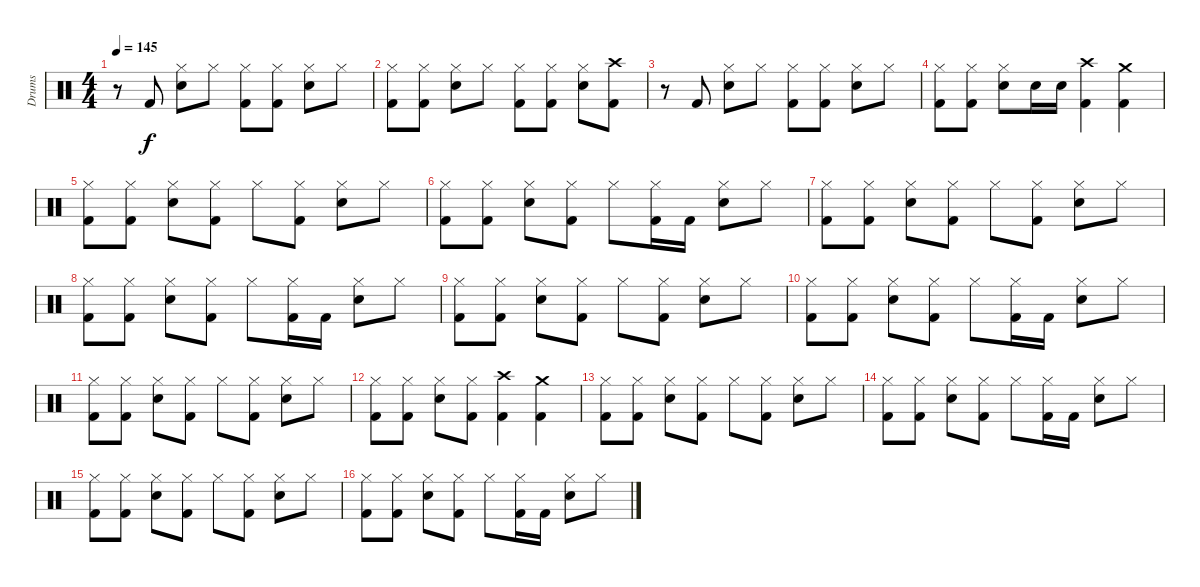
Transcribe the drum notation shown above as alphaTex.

\track ("Drums" "Drums") {instrument percussion}
\staff {score}
\articulation defaults
\ts (4 4)
\tempo 145
\clef neutral
\ks c
r.8{dy f} "Kick (hit) 2".8 ("Hi-Hat (closed)" "Snare (hit) 2").8 "Hi-Hat (closed)".8 ("Hi-Hat (closed)" "Kick (hit) 2").8 ("Hi-Hat (closed)" "Kick (hit) 2").8 ("Hi-Hat (closed)" "Snare (hit) 2").8 "Hi-Hat (closed)".8 |
("Hi-Hat (closed)" "Kick (hit) 2").8 ("Hi-Hat (closed)" "Kick (hit) 2").8 ("Hi-Hat (closed)" "Snare (hit) 2").8 "Hi-Hat (closed)".8 ("Hi-Hat (closed)" "Kick (hit) 2").8 ("Hi-Hat (closed)" "Kick (hit) 2").8 ("Hi-Hat (closed)" "Snare (hit) 2").8 ("Crash high (hit)" "Kick (hit) 2").8 |
r.8 "Kick (hit) 2".8 ("Hi-Hat (closed)" "Snare (hit) 2").8 "Hi-Hat (closed)".8 ("Hi-Hat (closed)" "Kick (hit) 2").8 ("Hi-Hat (closed)" "Kick (hit) 2").8 ("Hi-Hat (closed)" "Snare (hit) 2").8 "Hi-Hat (closed)".8 |
("Hi-Hat (closed)" "Kick (hit) 2").8 ("Hi-Hat (closed)" "Kick (hit) 2").8 ("Hi-Hat (closed)" "Snare (hit) 2").8 "Snare (hit) 2".16 "Snare (hit) 2".16 ("Crash high (hit)" "Kick (hit) 2").4 ("Crash medium (hit)" "Kick (hit) 2").4 |
("Hi-Hat (closed)" "Kick (hit) 2").8 ("Hi-Hat (closed)" "Kick (hit) 2").8 ("Hi-Hat (closed)" "Snare (hit) 2").8 ("Hi-Hat (closed)" "Kick (hit) 2").8 "Hi-Hat (closed)".8 ("Hi-Hat (closed)" "Kick (hit) 2").8 ("Hi-Hat (closed)" "Snare (hit) 2").8 "Hi-Hat (closed)".8 |
("Hi-Hat (closed)" "Kick (hit) 2").8 ("Hi-Hat (closed)" "Kick (hit) 2").8 ("Hi-Hat (closed)" "Snare (hit) 2").8 ("Hi-Hat (closed)" "Kick (hit) 2").8 "Hi-Hat (closed)".8 ("Hi-Hat (closed)" "Kick (hit) 2").16 "Kick (hit) 2".16 ("Hi-Hat (closed)" "Snare (hit) 2").8 "Hi-Hat (closed)".8 |
("Hi-Hat (closed)" "Kick (hit) 2").8 ("Hi-Hat (closed)" "Kick (hit) 2").8 ("Hi-Hat (closed)" "Snare (hit) 2").8 ("Hi-Hat (closed)" "Kick (hit) 2").8 "Hi-Hat (closed)".8 ("Hi-Hat (closed)" "Kick (hit) 2").8 ("Hi-Hat (closed)" "Snare (hit) 2").8 "Hi-Hat (closed)".8 |
("Hi-Hat (closed)" "Kick (hit) 2").8 ("Hi-Hat (closed)" "Kick (hit) 2").8 ("Hi-Hat (closed)" "Snare (hit) 2").8 ("Hi-Hat (closed)" "Kick (hit) 2").8 "Hi-Hat (closed)".8 ("Hi-Hat (closed)" "Kick (hit) 2").16 "Kick (hit) 2".16 ("Hi-Hat (closed)" "Snare (hit) 2").8 "Hi-Hat (closed)".8 |
("Hi-Hat (closed)" "Kick (hit) 2").8 ("Hi-Hat (closed)" "Kick (hit) 2").8 ("Hi-Hat (closed)" "Snare (hit) 2").8 ("Hi-Hat (closed)" "Kick (hit) 2").8 "Hi-Hat (closed)".8 ("Hi-Hat (closed)" "Kick (hit) 2").8 ("Hi-Hat (closed)" "Snare (hit) 2").8 "Hi-Hat (closed)".8 |
("Hi-Hat (closed)" "Kick (hit) 2").8 ("Hi-Hat (closed)" "Kick (hit) 2").8 ("Hi-Hat (closed)" "Snare (hit) 2").8 ("Hi-Hat (closed)" "Kick (hit) 2").8 "Hi-Hat (closed)".8 ("Hi-Hat (closed)" "Kick (hit) 2").16 "Kick (hit) 2".16 ("Hi-Hat (closed)" "Snare (hit) 2").8 "Hi-Hat (closed)".8 |
("Hi-Hat (closed)" "Kick (hit) 2").8 ("Hi-Hat (closed)" "Kick (hit) 2").8 ("Hi-Hat (closed)" "Snare (hit) 2").8 ("Hi-Hat (closed)" "Kick (hit) 2").8 "Hi-Hat (closed)".8 ("Hi-Hat (closed)" "Kick (hit) 2").8 ("Hi-Hat (closed)" "Snare (hit) 2").8 "Hi-Hat (closed)".8 |
("Hi-Hat (closed)" "Kick (hit) 2").8 ("Hi-Hat (closed)" "Kick (hit) 2").8 ("Hi-Hat (closed)" "Snare (hit) 2").8 ("Hi-Hat (closed)" "Kick (hit) 2").8 ("Crash high (hit)" "Kick (hit) 2").4 ("Crash medium (hit)" "Kick (hit) 2").4 |
("Hi-Hat (closed)" "Kick (hit) 2").8 ("Hi-Hat (closed)" "Kick (hit) 2").8 ("Hi-Hat (closed)" "Snare (hit) 2").8 ("Hi-Hat (closed)" "Kick (hit) 2").8 "Hi-Hat (closed)".8 ("Hi-Hat (closed)" "Kick (hit) 2").8 ("Hi-Hat (closed)" "Snare (hit) 2").8 "Hi-Hat (closed)".8 |
("Hi-Hat (closed)" "Kick (hit) 2").8 ("Hi-Hat (closed)" "Kick (hit) 2").8 ("Hi-Hat (closed)" "Snare (hit) 2").8 ("Hi-Hat (closed)" "Kick (hit) 2").8 "Hi-Hat (closed)".8 ("Hi-Hat (closed)" "Kick (hit) 2").16 "Kick (hit) 2".16 ("Hi-Hat (closed)" "Snare (hit) 2").8 "Hi-Hat (closed)".8 |
("Hi-Hat (closed)" "Kick (hit) 2").8 ("Hi-Hat (closed)" "Kick (hit) 2").8 ("Hi-Hat (closed)" "Snare (hit) 2").8 ("Hi-Hat (closed)" "Kick (hit) 2").8 "Hi-Hat (closed)".8 ("Hi-Hat (closed)" "Kick (hit) 2").8 ("Hi-Hat (closed)" "Snare (hit) 2").8 "Hi-Hat (closed)".8 |
("Hi-Hat (closed)" "Kick (hit) 2").8 ("Hi-Hat (closed)" "Kick (hit) 2").8 ("Hi-Hat (closed)" "Snare (hit) 2").8 ("Hi-Hat (closed)" "Kick (hit) 2").8 "Hi-Hat (closed)".8 ("Hi-Hat (closed)" "Kick (hit) 2").16 "Kick (hit) 2".16 ("Hi-Hat (closed)" "Snare (hit) 2").8 "Hi-Hat (closed)".8
